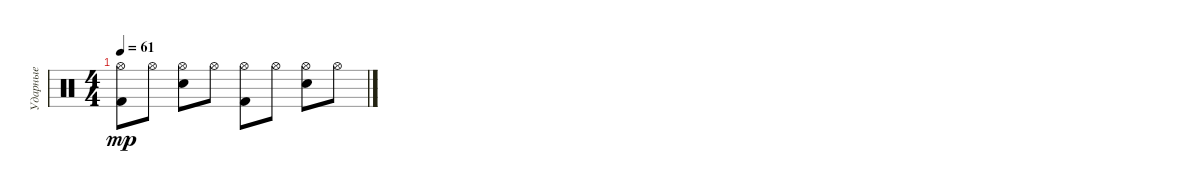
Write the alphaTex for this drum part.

\track ("Ударные" "Ударные") {instrument percussion}
\staff {score}
\articulation defaults
\ts (4 4)
\tempo 61
\clef neutral
\ks c
("Kick (hit) 2" "Hi-Hat (open)").8{dy mp} "Hi-Hat (open)".8 ("Electric Snare (hit)" "Hi-Hat (open)").8 "Hi-Hat (open)".8 ("Kick (hit) 2" "Hi-Hat (open)").8 "Hi-Hat (open)".8 ("Electric Snare (hit)" "Hi-Hat (open)").8 "Hi-Hat (open)".8
